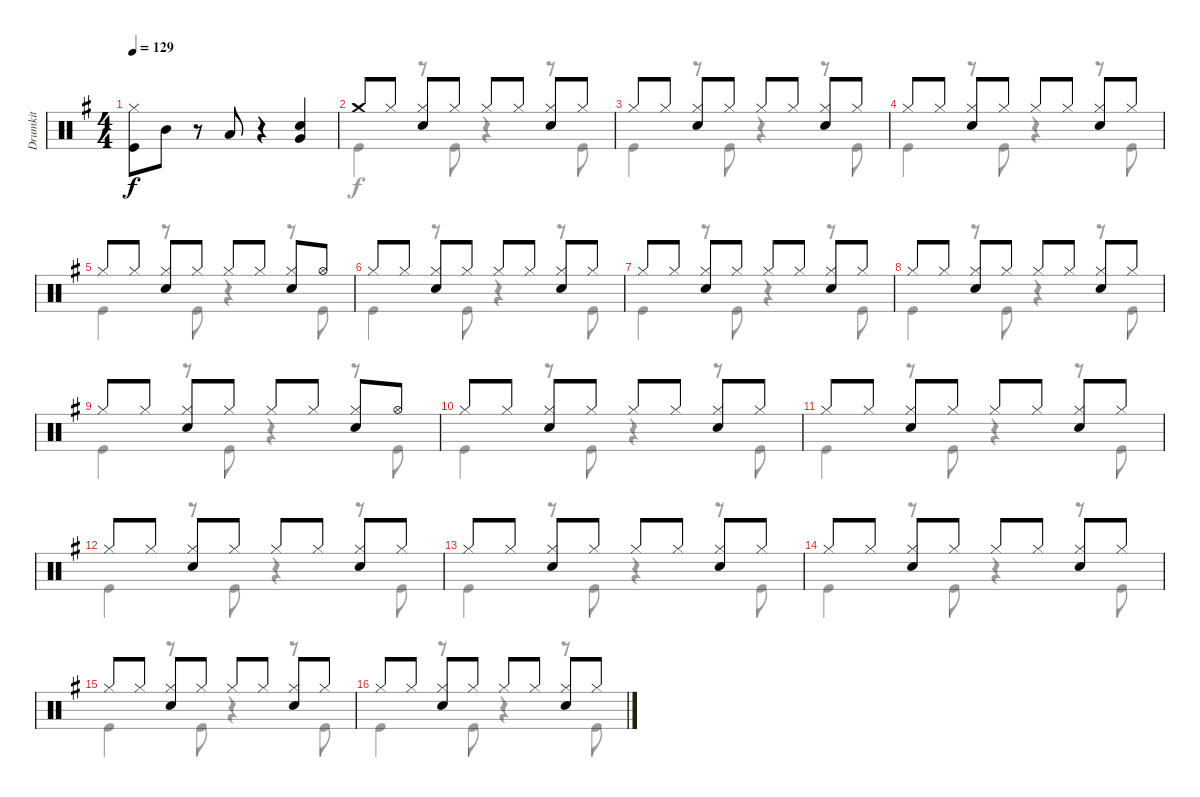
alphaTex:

\track ("Drumkit" "Drumkit") {instrument percussion}
\staff {score}
\articulation defaults
\voice
\ts (4 4)
\tempo 129
\clef neutral
\ks g
("Hi-Hat (closed)" "Kick (hit)").8{dy f} "Mid Tom (hit)".8 r.8 "Low Tom (hit)".8 r.4 ("Very Low Tom (hit)" "Snare (hit) 2").4 |
"Crash medium (hit)".8 "Hi-Hat (closed)".8 ("Hi-Hat (closed)" "Snare (hit) 2").8 "Hi-Hat (closed)".8 "Hi-Hat (closed)".8 "Hi-Hat (closed)".8 ("Hi-Hat (closed)" "Snare (hit) 2").8 "Hi-Hat (closed)".8 |
"Hi-Hat (closed)".8 "Hi-Hat (closed)".8 ("Hi-Hat (closed)" "Snare (hit) 2").8 "Hi-Hat (closed)".8 "Hi-Hat (closed)".8 "Hi-Hat (closed)".8 ("Hi-Hat (closed)" "Snare (hit) 2").8 "Hi-Hat (closed)".8 |
"Hi-Hat (closed)".8 "Hi-Hat (closed)".8 ("Hi-Hat (closed)" "Snare (hit) 2").8 "Hi-Hat (closed)".8 "Hi-Hat (closed)".8 "Hi-Hat (closed)".8 ("Hi-Hat (closed)" "Snare (hit) 2").8 "Hi-Hat (closed)".8 |
"Hi-Hat (closed)".8 "Hi-Hat (closed)".8 ("Hi-Hat (closed)" "Snare (hit) 2").8 "Hi-Hat (closed)".8 "Hi-Hat (closed)".8 "Hi-Hat (closed)".8 ("Hi-Hat (closed)" "Snare (hit) 2").8 "Hi-Hat (open)".8 |
"Hi-Hat (closed)".8 "Hi-Hat (closed)".8 ("Hi-Hat (closed)" "Snare (hit) 2").8 "Hi-Hat (closed)".8 "Hi-Hat (closed)".8 "Hi-Hat (closed)".8 ("Hi-Hat (closed)" "Snare (hit) 2").8 "Hi-Hat (closed)".8 |
"Hi-Hat (closed)".8 "Hi-Hat (closed)".8 ("Hi-Hat (closed)" "Snare (hit) 2").8 "Hi-Hat (closed)".8 "Hi-Hat (closed)".8 "Hi-Hat (closed)".8 ("Hi-Hat (closed)" "Snare (hit) 2").8 "Hi-Hat (closed)".8 |
"Hi-Hat (closed)".8 "Hi-Hat (closed)".8 ("Hi-Hat (closed)" "Snare (hit) 2").8 "Hi-Hat (closed)".8 "Hi-Hat (closed)".8 "Hi-Hat (closed)".8 ("Hi-Hat (closed)" "Snare (hit) 2").8 "Hi-Hat (closed)".8 |
"Hi-Hat (closed)".8 "Hi-Hat (closed)".8 ("Hi-Hat (closed)" "Snare (hit) 2").8 "Hi-Hat (closed)".8 "Hi-Hat (closed)".8 "Hi-Hat (closed)".8 ("Hi-Hat (closed)" "Snare (hit) 2").8 "Hi-Hat (open)".8 |
"Hi-Hat (closed)".8 "Hi-Hat (closed)".8 ("Hi-Hat (closed)" "Snare (hit) 2").8 "Hi-Hat (closed)".8 "Hi-Hat (closed)".8 "Hi-Hat (closed)".8 ("Hi-Hat (closed)" "Snare (hit) 2").8 "Hi-Hat (closed)".8 |
"Hi-Hat (closed)".8 "Hi-Hat (closed)".8 ("Hi-Hat (closed)" "Snare (hit) 2").8 "Hi-Hat (closed)".8 "Hi-Hat (closed)".8 "Hi-Hat (closed)".8 ("Hi-Hat (closed)" "Snare (hit) 2").8 "Hi-Hat (closed)".8 |
"Hi-Hat (closed)".8 "Hi-Hat (closed)".8 ("Hi-Hat (closed)" "Snare (hit) 2").8 "Hi-Hat (closed)".8 "Hi-Hat (closed)".8 "Hi-Hat (closed)".8 ("Hi-Hat (closed)" "Snare (hit) 2").8 "Hi-Hat (closed)".8 |
"Hi-Hat (closed)".8 "Hi-Hat (closed)".8 ("Hi-Hat (closed)" "Snare (hit) 2").8 "Hi-Hat (closed)".8 "Hi-Hat (closed)".8 "Hi-Hat (closed)".8 ("Hi-Hat (closed)" "Snare (hit) 2").8 "Hi-Hat (closed)".8 |
"Hi-Hat (closed)".8 "Hi-Hat (closed)".8 ("Hi-Hat (closed)" "Snare (hit) 2").8 "Hi-Hat (closed)".8 "Hi-Hat (closed)".8 "Hi-Hat (closed)".8 ("Hi-Hat (closed)" "Snare (hit) 2").8 "Hi-Hat (closed)".8 |
"Hi-Hat (closed)".8 "Hi-Hat (closed)".8 ("Hi-Hat (closed)" "Snare (hit) 2").8 "Hi-Hat (closed)".8 "Hi-Hat (closed)".8 "Hi-Hat (closed)".8 ("Hi-Hat (closed)" "Snare (hit) 2").8 "Hi-Hat (closed)".8 |
"Hi-Hat (closed)".8 "Hi-Hat (closed)".8 ("Hi-Hat (closed)" "Snare (hit) 2").8 "Hi-Hat (closed)".8 "Hi-Hat (closed)".8 "Hi-Hat (closed)".8 ("Hi-Hat (closed)" "Snare (hit) 2").8 "Hi-Hat (closed)".8
\voice
\clef neutral
\ottava regular
\simile none
\ks g
|
"Kick (hit)".4 r.8 "Kick (hit)".8 r.4 r.8 "Kick (hit)".8 |
"Kick (hit)".4 r.8 "Kick (hit)".8 r.4 r.8 "Kick (hit)".8 |
"Kick (hit)".4 r.8 "Kick (hit)".8 r.4 r.8 "Kick (hit)".8 |
"Kick (hit)".4 r.8 "Kick (hit)".8 r.4 r.8 "Kick (hit)".8 |
"Kick (hit)".4 r.8 "Kick (hit)".8 r.4 r.8 "Kick (hit)".8 |
"Kick (hit)".4 r.8 "Kick (hit)".8 r.4 r.8 "Kick (hit)".8 |
"Kick (hit)".4 r.8 "Kick (hit)".8 r.4 r.8 "Kick (hit)".8 |
"Kick (hit)".4 r.8 "Kick (hit)".8 r.4 r.8 "Kick (hit)".8 |
"Kick (hit)".4 r.8 "Kick (hit)".8 r.4 r.8 "Kick (hit)".8 |
"Kick (hit)".4 r.8 "Kick (hit)".8 r.4 r.8 "Kick (hit)".8 |
"Kick (hit)".4 r.8 "Kick (hit)".8 r.4 r.8 "Kick (hit)".8 |
"Kick (hit)".4 r.8 "Kick (hit)".8 r.4 r.8 "Kick (hit)".8 |
"Kick (hit)".4 r.8 "Kick (hit)".8 r.4 r.8 "Kick (hit)".8 |
"Kick (hit)".4 r.8 "Kick (hit)".8 r.4 r.8 "Kick (hit)".8 |
"Kick (hit)".4 r.8 "Kick (hit)".8 r.4 r.8 "Kick (hit)".8
